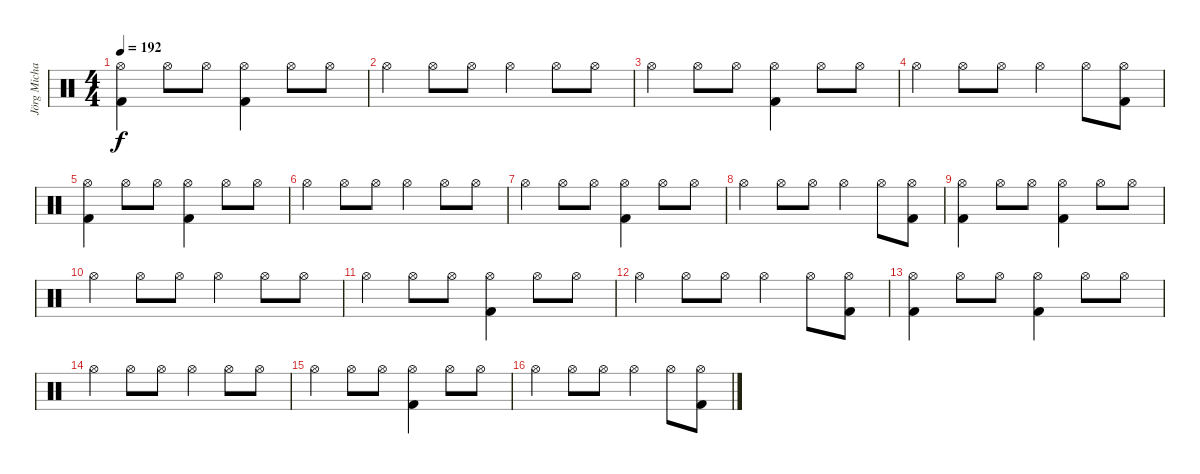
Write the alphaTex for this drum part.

\track ("Jörg Michael" "Jörg Micha") {instrument percussion}
\staff {score}
\articulation defaults
\ts (4 4)
\tempo 192
\clef neutral
\ks c
("Kick (hit) 2" "Hi-Hat (open)").4{dy f} "Hi-Hat (open)".8 "Hi-Hat (open)".8 ("Kick (hit) 2" "Hi-Hat (open)").4 "Hi-Hat (open)".8 "Hi-Hat (open)".8 |
"Hi-Hat (open)".4 "Hi-Hat (open)".8 "Hi-Hat (open)".8 "Hi-Hat (open)".4 "Hi-Hat (open)".8 "Hi-Hat (open)".8 |
"Hi-Hat (open)".4 "Hi-Hat (open)".8 "Hi-Hat (open)".8 ("Kick (hit) 2" "Hi-Hat (open)").4 "Hi-Hat (open)".8 "Hi-Hat (open)".8 |
"Hi-Hat (open)".4 "Hi-Hat (open)".8 "Hi-Hat (open)".8 "Hi-Hat (open)".4 "Hi-Hat (open)".8 ("Kick (hit) 2" "Hi-Hat (open)").8 |
("Kick (hit) 2" "Hi-Hat (open)").4 "Hi-Hat (open)".8 "Hi-Hat (open)".8 ("Kick (hit) 2" "Hi-Hat (open)").4 "Hi-Hat (open)".8 "Hi-Hat (open)".8 |
"Hi-Hat (open)".4 "Hi-Hat (open)".8 "Hi-Hat (open)".8 "Hi-Hat (open)".4 "Hi-Hat (open)".8 "Hi-Hat (open)".8 |
"Hi-Hat (open)".4 "Hi-Hat (open)".8 "Hi-Hat (open)".8 ("Kick (hit) 2" "Hi-Hat (open)").4 "Hi-Hat (open)".8 "Hi-Hat (open)".8 |
"Hi-Hat (open)".4 "Hi-Hat (open)".8 "Hi-Hat (open)".8 "Hi-Hat (open)".4 "Hi-Hat (open)".8 ("Kick (hit) 2" "Hi-Hat (open)").8 |
("Kick (hit) 2" "Hi-Hat (open)").4 "Hi-Hat (open)".8 "Hi-Hat (open)".8 ("Kick (hit) 2" "Hi-Hat (open)").4 "Hi-Hat (open)".8 "Hi-Hat (open)".8 |
"Hi-Hat (open)".4 "Hi-Hat (open)".8 "Hi-Hat (open)".8 "Hi-Hat (open)".4 "Hi-Hat (open)".8 "Hi-Hat (open)".8 |
"Hi-Hat (open)".4 "Hi-Hat (open)".8 "Hi-Hat (open)".8 ("Kick (hit) 2" "Hi-Hat (open)").4 "Hi-Hat (open)".8 "Hi-Hat (open)".8 |
"Hi-Hat (open)".4 "Hi-Hat (open)".8 "Hi-Hat (open)".8 "Hi-Hat (open)".4 "Hi-Hat (open)".8 ("Kick (hit) 2" "Hi-Hat (open)").8 |
("Kick (hit) 2" "Hi-Hat (open)").4 "Hi-Hat (open)".8 "Hi-Hat (open)".8 ("Kick (hit) 2" "Hi-Hat (open)").4 "Hi-Hat (open)".8 "Hi-Hat (open)".8 |
"Hi-Hat (open)".4 "Hi-Hat (open)".8 "Hi-Hat (open)".8 "Hi-Hat (open)".4 "Hi-Hat (open)".8 "Hi-Hat (open)".8 |
"Hi-Hat (open)".4{volume 11} "Hi-Hat (open)".8{volume 10} "Hi-Hat (open)".8{volume 10} ("Kick (hit) 2" "Hi-Hat (open)").4{volume 10} "Hi-Hat (open)".8{volume 10} "Hi-Hat (open)".8{volume 10} |
"Hi-Hat (open)".4{volume 10} "Hi-Hat (open)".8{volume 10} "Hi-Hat (open)".8{volume 9} "Hi-Hat (open)".4{volume 9} "Hi-Hat (open)".8{volume 9} ("Kick (hit) 2" "Hi-Hat (open)").8{volume 9}
